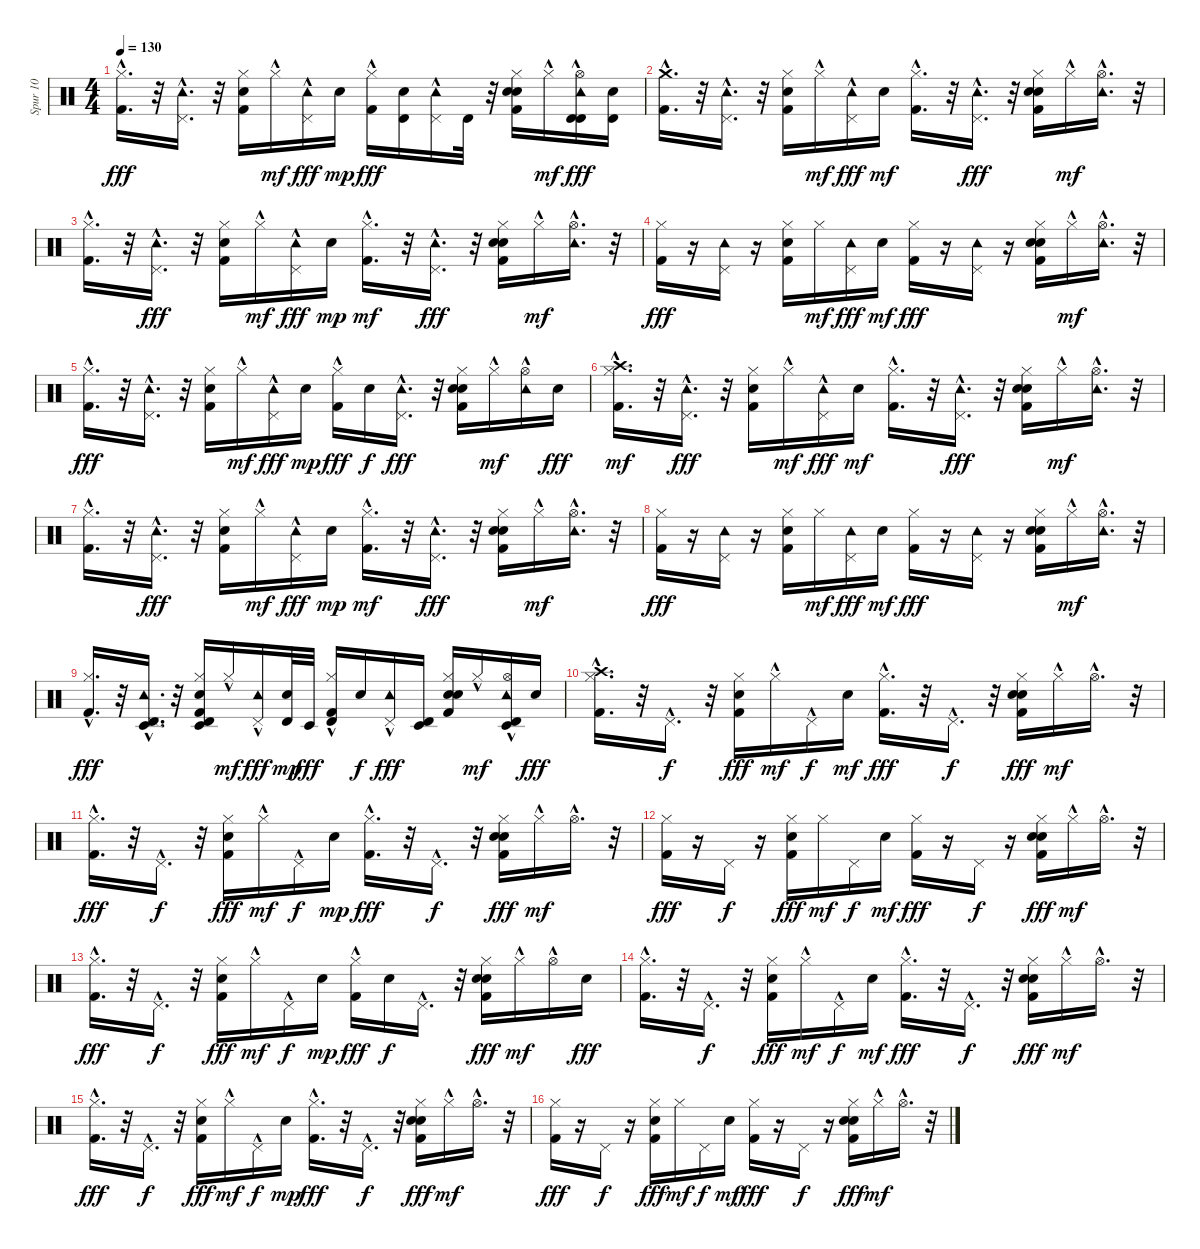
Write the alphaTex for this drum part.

\track ("Spur 10" "Spur 10") {instrument percussion}
\staff {score}
\articulation defaults
\ts (4 4)
\tempo 130
\clef neutral
\ks c
("Hi-Hat (closed)"{hac} "Kick (hit) 2").16{d dy fff} r.32 ("Tambourine (hit)"{hac} "Pedal Hi-Hat (hit)"{hac}).16{d} r.32 ("Hi-Hat (closed)" "Snare (hit) 2" "Kick (hit) 2").16 "Hi-Hat (closed)"{hac}.16{dy mf} ("Tambourine (hit)"{hac} "Pedal Hi-Hat (hit)"{hac}).16{dy fff} "Electric Snare (hit)".16{dy mp} ("Hi-Hat (closed)"{hac} "Kick (hit) 2").16{dy fff} ("Snare (hit) 2" "Timbale high (hit)").16 ("Tambourine (hit)"{hac} "Pedal Hi-Hat (hit)"{hac}).16 "Timbale high (hit)".32 r.32 ("Hand Clap (hit)" "Snare (hit) 2" "Hi-Hat (closed)" "Kick (hit) 2").16 "Hi-Hat (closed)"{hac}.16{dy mf} ("Timbale high (hit)" "Tambourine (hit)"{hac} "Hi-Hat (open)"{hac} "Timbale high (hit)").16{dy fff} ("Snare (hit) 2" "Timbale high (hit)").16 |
("Crash medium (hit)"{hac} "Kick (hit) 2").16{d} r.32 ("Tambourine (hit)"{hac} "Pedal Hi-Hat (hit)"{hac}).16{d} r.32 ("Kick (hit) 2" "Hi-Hat (closed)" "Snare (hit) 2").16 "Hi-Hat (closed)"{hac}.16{dy mf} ("Tambourine (hit)"{hac} "Pedal Hi-Hat (hit)"{hac}).16{dy fff} "Electric Snare (hit)".16{dy mf} ("Kick (hit) 2" "Hi-Hat (closed)"{hac}).16{d} r.32 ("Tambourine (hit)"{hac} "Pedal Hi-Hat (hit)"{hac}).16{d dy fff} r.32 ("Kick (hit) 2" "Hi-Hat (closed)" "Hand Clap (hit)" "Snare (hit) 2").16 "Hi-Hat (closed)"{hac}.16{dy mf} ("Tambourine (hit)"{hac} "Hi-Hat (open)"{hac}).16{d} r.32 |
("Kick (hit) 2" "Hi-Hat (closed)"{hac}).16{d} r.32 ("Tambourine (hit)"{hac} "Pedal Hi-Hat (hit)"{hac}).16{d dy fff} r.32 ("Hi-Hat (closed)" "Snare (hit) 2" "Kick (hit) 2").16 "Hi-Hat (closed)"{hac}.16{dy mf} ("Tambourine (hit)"{hac} "Pedal Hi-Hat (hit)"{hac}).16{dy fff} "Electric Snare (hit)".16{dy mp} ("Kick (hit) 2" "Hi-Hat (closed)"{hac}).16{d dy mf} r.32 ("Tambourine (hit)"{hac} "Pedal Hi-Hat (hit)"{hac}).16{d dy fff} r.32 ("Hi-Hat (closed)" "Kick (hit) 2" "Snare (hit) 2" "Hand Clap (hit)").16 "Hi-Hat (closed)"{hac}.16{dy mf} ("Tambourine (hit)"{hac} "Hi-Hat (open)"{hac}).16{d} r.32 |
("Hi-Hat (closed)" "Kick (hit) 2").16{dy fff} r.16 ("Tambourine (hit)" "Pedal Hi-Hat (hit)").16 r.16 ("Snare (hit) 2" "Hi-Hat (closed)" "Kick (hit) 2").16 "Hi-Hat (closed)".16{dy mf} ("Tambourine (hit)" "Pedal Hi-Hat (hit)").16{dy fff} "Electric Snare (hit)".16{dy mf} ("Hi-Hat (closed)" "Kick (hit) 2").16{dy fff} r.16 ("Tambourine (hit)" "Pedal Hi-Hat (hit)").16 r.16 ("Snare (hit) 2" "Hand Clap (hit)" "Hi-Hat (closed)" "Kick (hit) 2").16 "Hi-Hat (closed)"{hac}.16{dy mf} ("Tambourine (hit)" "Hi-Hat (open)"{hac}).16{d} r.32 |
("Hi-Hat (closed)"{hac} "Kick (hit) 2").16{d dy fff} r.32 ("Tambourine (hit)"{hac} "Pedal Hi-Hat (hit)"{hac}).16{d} r.32 ("Hi-Hat (closed)" "Snare (hit) 2" "Kick (hit) 2").16 "Hi-Hat (closed)"{hac}.16{dy mf} ("Tambourine (hit)"{hac} "Pedal Hi-Hat (hit)"{hac}).16{dy fff} "Electric Snare (hit)".16{dy mp} ("Hi-Hat (closed)"{hac} "Kick (hit) 2").16{dy fff} "Snare (hit) 2".16{dy f} ("Tambourine (hit)"{hac} "Pedal Hi-Hat (hit)"{hac}).16{d dy fff} r.32 ("Hand Clap (hit)" "Snare (hit) 2" "Hi-Hat (closed)" "Kick (hit) 2").16 "Hi-Hat (closed)"{hac}.16{dy mf} ("Tambourine (hit)"{hac} "Hi-Hat (open)"{hac}).16 "Snare (hit) 2".16{dy fff} |
("Crash high (hit)" "Kick (hit) 2" "Hi-Hat (closed)"{hac}).16{d dy mf} r.32 ("Tambourine (hit)"{hac} "Pedal Hi-Hat (hit)"{hac}).16{d dy fff} r.32 ("Kick (hit) 2" "Hi-Hat (closed)" "Snare (hit) 2").16 "Hi-Hat (closed)"{hac}.16{dy mf} ("Tambourine (hit)"{hac} "Pedal Hi-Hat (hit)"{hac}).16{dy fff} "Electric Snare (hit)".16{dy mf} ("Kick (hit) 2" "Hi-Hat (closed)"{hac}).16{d} r.32 ("Tambourine (hit)"{hac} "Pedal Hi-Hat (hit)"{hac}).16{d dy fff} r.32 ("Kick (hit) 2" "Hi-Hat (closed)" "Hand Clap (hit)" "Snare (hit) 2").16 "Hi-Hat (closed)"{hac}.16{dy mf} ("Tambourine (hit)"{hac} "Hi-Hat (open)"{hac}).16{d} r.32 |
("Kick (hit) 2" "Hi-Hat (closed)"{hac}).16{d} r.32 ("Tambourine (hit)"{hac} "Pedal Hi-Hat (hit)"{hac}).16{d dy fff} r.32 ("Hi-Hat (closed)" "Snare (hit) 2" "Kick (hit) 2").16 "Hi-Hat (closed)"{hac}.16{dy mf} ("Tambourine (hit)"{hac} "Pedal Hi-Hat (hit)"{hac}).16{dy fff} "Electric Snare (hit)".16{dy mp} ("Kick (hit) 2" "Hi-Hat (closed)"{hac}).16{d dy mf} r.32 ("Tambourine (hit)"{hac} "Pedal Hi-Hat (hit)"{hac}).16{d dy fff} r.32 ("Hi-Hat (closed)" "Kick (hit) 2" "Snare (hit) 2" "Hand Clap (hit)").16 "Hi-Hat (closed)"{hac}.16{dy mf} ("Tambourine (hit)"{hac} "Hi-Hat (open)"{hac}).16{d} r.32 |
("Hi-Hat (closed)" "Kick (hit) 2").16{dy fff} r.16 ("Tambourine (hit)" "Pedal Hi-Hat (hit)").16 r.16 ("Snare (hit) 2" "Hi-Hat (closed)" "Kick (hit) 2").16 "Hi-Hat (closed)".16{dy mf} ("Tambourine (hit)" "Pedal Hi-Hat (hit)").16{dy fff} "Electric Snare (hit)".16{dy mf} ("Hi-Hat (closed)" "Kick (hit) 2").16{dy fff} r.16 ("Tambourine (hit)" "Pedal Hi-Hat (hit)").16 r.16 ("Snare (hit) 2" "Hand Clap (hit)" "Hi-Hat (closed)" "Kick (hit) 2").16 "Hi-Hat (closed)"{hac}.16{dy mf} ("Tambourine (hit)" "Hi-Hat (open)"{hac}).16{d} r.32 |
("Hi-Hat (closed)"{hac} "Kick (hit) 2").16{d dy fff} r.32 ("Tambourine (hit)"{hac} "Pedal Hi-Hat (hit)"{hac} "Timbale high (hit)" "Timbale low (hit)").16{d} r.32 ("Hi-Hat (closed)" "Snare (hit) 2" "Kick (hit) 2" "Timbale low (hit)" "Timbale high (hit)").16 "Hi-Hat (closed)"{hac}.16{dy mf} ("Tambourine (hit)"{hac} "Pedal Hi-Hat (hit)"{hac}).16{dy fff} ("Timbale high (hit)" "Electric Snare (hit)").32{dy mp} "Timbale low (hit)".32{dy fff} ("Timbale high (hit)" "Hi-Hat (closed)"{hac} "Kick (hit) 2").16 "Snare (hit) 2".16{dy f} ("Tambourine (hit)"{hac} "Pedal Hi-Hat (hit)"{hac}).16{dy fff} ("Timbale high (hit)" "Timbale low (hit)").16 ("Hand Clap (hit)" "Snare (hit) 2" "Hi-Hat (closed)" "Kick (hit) 2").16 "Hi-Hat (closed)"{hac}.16{dy mf} ("Timbale low (hit)" "Timbale high (hit)" "Tambourine (hit)"{hac} "Hi-Hat (open)"{hac}).16 "Snare (hit) 2".16{dy fff} |
("Hi-Hat (closed)"{hac} "Crash high (hit)" "Kick (hit) 2").16{d} r.32 "Pedal Hi-Hat (hit)"{hac}.16{d dy f} r.32 ("Hi-Hat (closed)" "Kick (hit) 2" "Snare (hit) 2").16{dy fff} "Hi-Hat (closed)"{hac}.16{dy mf} "Pedal Hi-Hat (hit)"{hac}.16{dy f} "Electric Snare (hit)".16{dy mf} ("Hi-Hat (closed)"{hac} "Kick (hit) 2").16{d dy fff} r.32 "Pedal Hi-Hat (hit)"{hac}.16{d dy f} r.32 ("Hi-Hat (closed)" "Kick (hit) 2" "Hand Clap (hit)" "Snare (hit) 2").16{dy fff} "Hi-Hat (closed)"{hac}.16{dy mf} "Hi-Hat (open)"{hac}.16{d} r.32 |
("Hi-Hat (closed)"{hac} "Kick (hit) 2").16{d dy fff} r.32 "Pedal Hi-Hat (hit)"{hac}.16{d dy f} r.32 ("Hi-Hat (closed)" "Snare (hit) 2" "Kick (hit) 2").16{dy fff} "Hi-Hat (closed)"{hac}.16{dy mf} "Pedal Hi-Hat (hit)"{hac}.16{dy f} "Electric Snare (hit)".16{dy mp} ("Hi-Hat (closed)"{hac} "Kick (hit) 2").16{d dy fff} r.32 "Pedal Hi-Hat (hit)"{hac}.16{d dy f} r.32 ("Hi-Hat (closed)" "Kick (hit) 2" "Snare (hit) 2" "Hand Clap (hit)").16{dy fff} "Hi-Hat (closed)"{hac}.16{dy mf} "Hi-Hat (open)"{hac}.16{d} r.32 |
("Hi-Hat (closed)" "Kick (hit) 2").16{dy fff} r.16 "Pedal Hi-Hat (hit)".16{dy f} r.16 ("Hi-Hat (closed)" "Snare (hit) 2" "Kick (hit) 2").16{dy fff} "Hi-Hat (closed)".16{dy mf} "Pedal Hi-Hat (hit)".16{dy f} "Electric Snare (hit)".16{dy mf} ("Hi-Hat (closed)" "Kick (hit) 2").16{dy fff} r.16 "Pedal Hi-Hat (hit)".16{dy f} r.16 ("Hi-Hat (closed)" "Snare (hit) 2" "Hand Clap (hit)" "Kick (hit) 2").16{dy fff} "Hi-Hat (closed)"{hac}.16{dy mf} "Hi-Hat (open)"{hac}.16{d} r.32 |
("Hi-Hat (closed)"{hac} "Kick (hit) 2").16{d dy fff} r.32 "Pedal Hi-Hat (hit)"{hac}.16{d dy f} r.32 ("Hi-Hat (closed)" "Snare (hit) 2" "Kick (hit) 2").16{dy fff} "Hi-Hat (closed)"{hac}.16{dy mf} "Pedal Hi-Hat (hit)"{hac}.16{dy f} "Electric Snare (hit)".16{dy mp} ("Hi-Hat (closed)"{hac} "Kick (hit) 2").16{dy fff} "Snare (hit) 2".16{dy f} "Pedal Hi-Hat (hit)"{hac}.16{d} r.32 ("Hi-Hat (closed)" "Hand Clap (hit)" "Snare (hit) 2" "Kick (hit) 2").16{dy fff} "Hi-Hat (closed)"{hac}.16{dy mf} "Hi-Hat (open)"{hac}.16 "Snare (hit) 2".16{dy fff} |
("Hi-Hat (closed)"{hac} "Kick (hit) 2").16{d} r.32 "Pedal Hi-Hat (hit)"{hac}.16{d dy f} r.32 ("Hi-Hat (closed)" "Kick (hit) 2" "Snare (hit) 2").16{dy fff} "Hi-Hat (closed)"{hac}.16{dy mf} "Pedal Hi-Hat (hit)"{hac}.16{dy f} "Electric Snare (hit)".16{dy mf} ("Hi-Hat (closed)"{hac} "Kick (hit) 2").16{d dy fff} r.32 "Pedal Hi-Hat (hit)"{hac}.16{d dy f} r.32 ("Hi-Hat (closed)" "Kick (hit) 2" "Hand Clap (hit)" "Snare (hit) 2").16{dy fff} "Hi-Hat (closed)"{hac}.16{dy mf} "Hi-Hat (open)"{hac}.16{d} r.32 |
("Hi-Hat (closed)"{hac} "Kick (hit) 2").16{d dy fff} r.32 "Pedal Hi-Hat (hit)"{hac}.16{d dy f} r.32 ("Hi-Hat (closed)" "Snare (hit) 2" "Kick (hit) 2").16{dy fff} "Hi-Hat (closed)"{hac}.16{dy mf} "Pedal Hi-Hat (hit)"{hac}.16{dy f} "Electric Snare (hit)".16{dy mp} ("Hi-Hat (closed)"{hac} "Kick (hit) 2").16{d dy fff} r.32 "Pedal Hi-Hat (hit)"{hac}.16{d dy f} r.32 ("Hi-Hat (closed)" "Kick (hit) 2" "Snare (hit) 2" "Hand Clap (hit)").16{dy fff} "Hi-Hat (closed)"{hac}.16{dy mf} "Hi-Hat (open)"{hac}.16{d} r.32 |
("Hi-Hat (closed)" "Kick (hit) 2").16{dy fff} r.16 "Pedal Hi-Hat (hit)".16{dy f} r.16 ("Hi-Hat (closed)" "Snare (hit) 2" "Kick (hit) 2").16{dy fff} "Hi-Hat (closed)".16{dy mf} "Pedal Hi-Hat (hit)".16{dy f} "Electric Snare (hit)".16{dy mf} ("Hi-Hat (closed)" "Kick (hit) 2").16{dy fff} r.16 "Pedal Hi-Hat (hit)".16{dy f} r.16 ("Hi-Hat (closed)" "Snare (hit) 2" "Hand Clap (hit)" "Kick (hit) 2").16{dy fff} "Hi-Hat (closed)"{hac}.16{dy mf} "Hi-Hat (open)"{hac}.16{d} r.32
